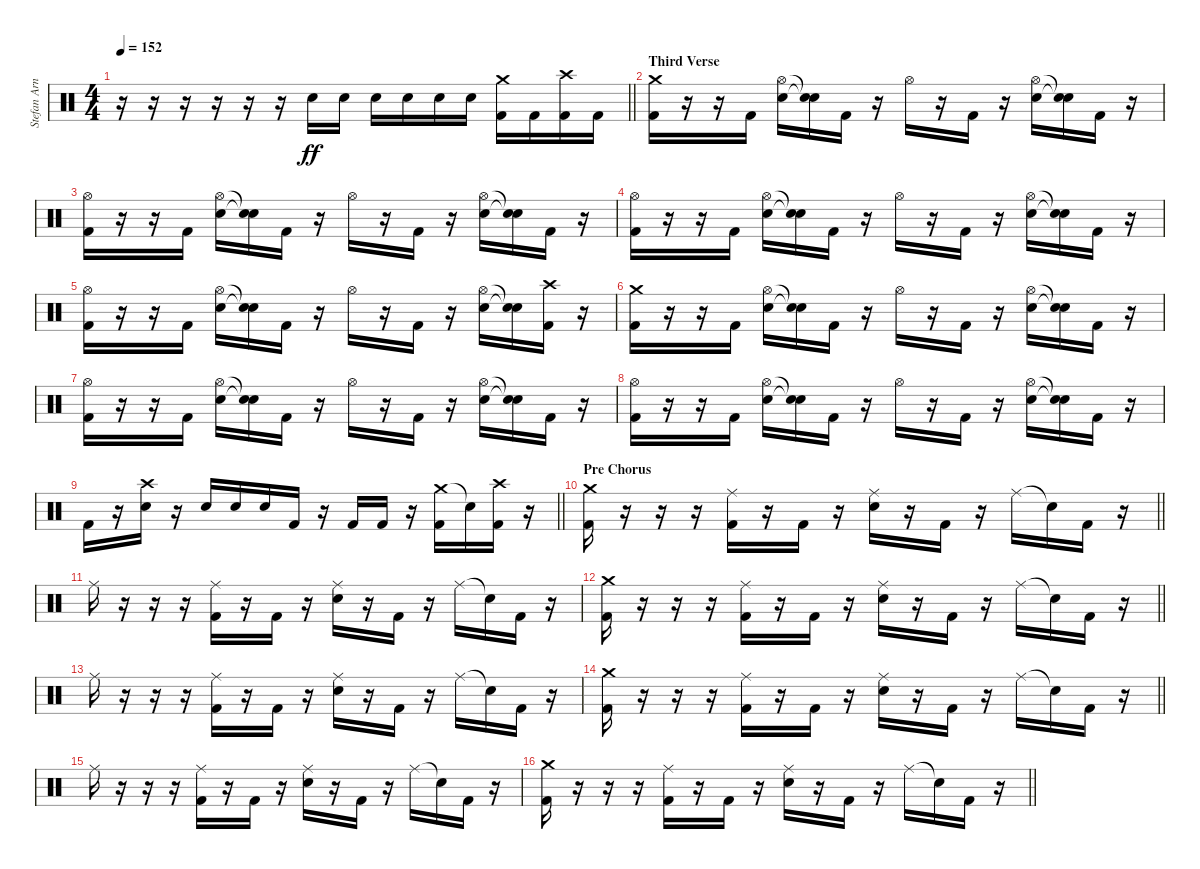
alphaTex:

\track ("Stefan Arnold" "Stefan Arn") {instrument percussion}
\staff {score}
\articulation defaults
\ts (4 4)
\tempo 152
\clef neutral
\barLineRight lightlight
\ks c
r.16{dy ff} r.16 r.16 r.16 r.16 r.16 "Electric Snare (hit)".16 "Electric Snare (hit)".16 "Electric Snare (hit)".16 "Electric Snare (hit)".16 "Electric Snare (hit)".16 "Electric Snare (hit)".16 ("Crash medium (hit)" "Kick (hit) 2").16 "Kick (hit) 2".16 ("Crash high (hit)" "Kick (hit) 2").16 "Kick (hit) 2".16 |
\section ("" "Third Verse")
("Crash medium (hit)" "Kick (hit) 2").16 r.16 r.16 "Kick (hit) 2".16 ("Hi-Hat (open)" "Electric Snare (hit)").16 ("Snare (hit)"{t} "Electric Snare (hit)"{t}).16 "Kick (hit) 2".16 r.16 "Hi-Hat (open)".16 r.16 "Kick (hit) 2".16 r.16 ("Hi-Hat (open)" "Electric Snare (hit)").16 ("Snare (hit)"{t} "Electric Snare (hit)"{t}).16 "Kick (hit) 2".16 r.16 |
("Hi-Hat (open)" "Kick (hit) 2").16 r.16 r.16 "Kick (hit) 2".16 ("Hi-Hat (open)" "Electric Snare (hit)").16 ("Snare (hit)"{t} "Electric Snare (hit)"{t}).16 "Kick (hit) 2".16 r.16 "Hi-Hat (open)".16 r.16 "Kick (hit) 2".16 r.16 ("Hi-Hat (open)" "Electric Snare (hit)").16 ("Snare (hit)"{t} "Electric Snare (hit)"{t}).16 "Kick (hit) 2".16 r.16 |
("Hi-Hat (open)" "Kick (hit) 2").16 r.16 r.16 "Kick (hit) 2".16 ("Hi-Hat (open)" "Electric Snare (hit)").16 ("Snare (hit)"{t} "Electric Snare (hit)"{t}).16 "Kick (hit) 2".16 r.16 "Hi-Hat (open)".16 r.16 "Kick (hit) 2".16 r.16 ("Hi-Hat (open)" "Electric Snare (hit)").16 ("Snare (hit)"{t} "Electric Snare (hit)"{t}).16 "Kick (hit) 2".16 r.16 |
("Hi-Hat (open)" "Kick (hit) 2").16 r.16 r.16 "Kick (hit) 2".16 ("Hi-Hat (open)" "Electric Snare (hit)").16 ("Snare (hit)"{t} "Electric Snare (hit)"{t}).16 "Kick (hit) 2".16 r.16 "Hi-Hat (open)".16 r.16 "Kick (hit) 2".16 r.16 ("Hi-Hat (open)" "Electric Snare (hit)").16 ("Snare (hit)"{t} "Electric Snare (hit)"{t}).16 ("Crash high (hit)" "Kick (hit) 2").16 r.16 |
("Crash medium (hit)" "Kick (hit) 2").16 r.16 r.16 "Kick (hit) 2".16 ("Hi-Hat (open)" "Electric Snare (hit)").16 ("Snare (hit)"{t} "Electric Snare (hit)"{t}).16 "Kick (hit) 2".16 r.16 "Hi-Hat (open)".16 r.16 "Kick (hit) 2".16 r.16 ("Hi-Hat (open)" "Electric Snare (hit)").16 ("Snare (hit)"{t} "Electric Snare (hit)"{t}).16 "Kick (hit) 2".16 r.16 |
("Hi-Hat (open)" "Kick (hit) 2").16 r.16 r.16 "Kick (hit) 2".16 ("Hi-Hat (open)" "Electric Snare (hit)").16 ("Snare (hit)"{t} "Electric Snare (hit)"{t}).16 "Kick (hit) 2".16 r.16 "Hi-Hat (open)".16 r.16 "Kick (hit) 2".16 r.16 ("Hi-Hat (open)" "Electric Snare (hit)").16 ("Snare (hit)"{t} "Electric Snare (hit)"{t}).16 "Kick (hit) 2".16 r.16 |
("Hi-Hat (open)" "Kick (hit) 2").16 r.16 r.16 "Kick (hit) 2".16 ("Hi-Hat (open)" "Electric Snare (hit)").16 ("Snare (hit)"{t} "Electric Snare (hit)"{t}).16 "Kick (hit) 2".16 r.16 "Hi-Hat (open)".16 r.16 "Kick (hit) 2".16 r.16 ("Hi-Hat (open)" "Electric Snare (hit)").16 ("Snare (hit)"{t} "Electric Snare (hit)"{t}).16 "Kick (hit) 2".16 r.16 |
\barLineRight lightlight "Kick (hit) 2".16
r.16 ("Crash high (hit)" "Electric Snare (hit)").16 r.16 "Electric Snare (hit)".16 "Electric Snare (hit)".16 "Electric Snare (hit)".16 "Kick (hit) 2".16 r.16 "Kick (hit) 2".16 "Kick (hit) 2".16 r.16 ("Crash medium (hit)" "Kick (hit) 2").16 "Snare (hit)"{t}.16 ("Crash high (hit)" "Kick (hit) 2").16 r.16 |
\section ("" "Pre Chorus")
\barLineRight lightlight
("Crash medium (hit)" "Kick (hit) 2").16 r.16 r.16 r.16 ("Ride (middle)" "Kick (hit) 2").16 r.16 "Kick (hit) 2".16 r.16 ("Ride (middle)" "Electric Snare (hit)").16 r.16 "Kick (hit) 2".16 r.16 "Ride (middle)".16 "Snare (hit)"{t}.16 "Kick (hit) 2".16 r.16 |
"Ride (middle)".16 r.16 r.16 r.16 ("Ride (middle)" "Kick (hit) 2").16 r.16 "Kick (hit) 2".16 r.16 ("Ride (middle)" "Electric Snare (hit)").16 r.16 "Kick (hit) 2".16 r.16 "Ride (middle)".16 "Snare (hit)"{t}.16 "Kick (hit) 2".16 r.16 |
\barLineRight lightlight
("Crash medium (hit)" "Kick (hit) 2").16 r.16 r.16 r.16 ("Ride (middle)" "Kick (hit) 2").16 r.16 "Kick (hit) 2".16 r.16 ("Ride (middle)" "Electric Snare (hit)").16 r.16 "Kick (hit) 2".16 r.16 "Ride (middle)".16 "Snare (hit)"{t}.16 "Kick (hit) 2".16 r.16 |
"Ride (middle)".16 r.16 r.16 r.16 ("Ride (middle)" "Kick (hit) 2").16 r.16 "Kick (hit) 2".16 r.16 ("Ride (middle)" "Electric Snare (hit)").16 r.16 "Kick (hit) 2".16 r.16 "Ride (middle)".16 "Snare (hit)"{t}.16 "Kick (hit) 2".16 r.16 |
\barLineRight lightlight
("Crash medium (hit)" "Kick (hit) 2").16 r.16 r.16 r.16 ("Ride (middle)" "Kick (hit) 2").16 r.16 "Kick (hit) 2".16 r.16 ("Ride (middle)" "Electric Snare (hit)").16 r.16 "Kick (hit) 2".16 r.16 "Ride (middle)".16 "Snare (hit)"{t}.16 "Kick (hit) 2".16 r.16 |
"Ride (middle)".16 r.16 r.16 r.16 ("Ride (middle)" "Kick (hit) 2").16 r.16 "Kick (hit) 2".16 r.16 ("Ride (middle)" "Electric Snare (hit)").16 r.16 "Kick (hit) 2".16 r.16 "Ride (middle)".16 "Snare (hit)"{t}.16 "Kick (hit) 2".16 r.16 |
\barLineRight lightlight
("Crash medium (hit)" "Kick (hit) 2").16 r.16 r.16 r.16 ("Ride (middle)" "Kick (hit) 2").16 r.16 "Kick (hit) 2".16 r.16 ("Ride (middle)" "Electric Snare (hit)").16 r.16 "Kick (hit) 2".16 r.16 "Ride (middle)".16 "Snare (hit)"{t}.16 "Kick (hit) 2".16 r.16
